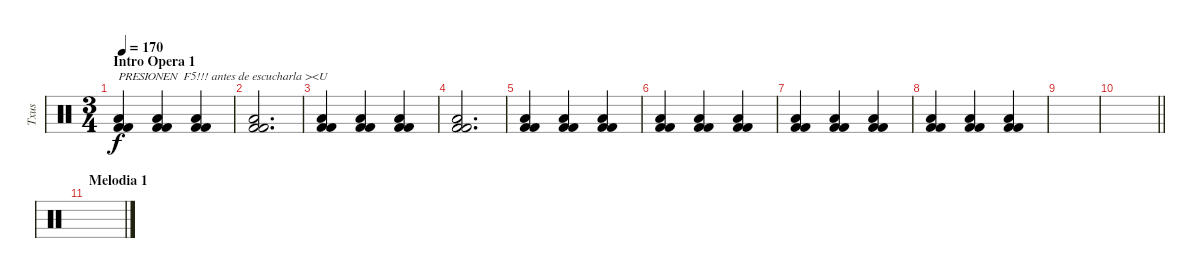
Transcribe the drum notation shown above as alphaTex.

\track ("Txus" "Txus") {instrument percussion}
\staff {score}
\articulation defaults
\ts (3 4)
\section ("" "Intro Opera 1")
\tempo 170
\clef neutral
\ks c
("Low Floor Tom (hit)" "Kick (hit) 2" "Kick (hit) 2").4{txt "PRESIONEN  F5!!! antes de escucharla ><U" dy f} ("Low Floor Tom (hit)" "Kick (hit) 2" "Kick (hit) 2").4 ("Low Floor Tom (hit)" "Kick (hit) 2" "Kick (hit) 2").4 |
("Low Floor Tom (hit)" "Kick (hit) 2" "Kick (hit) 2").2{d} |
("Low Floor Tom (hit)" "Kick (hit) 2" "Kick (hit) 2").4 ("Low Floor Tom (hit)" "Kick (hit) 2" "Kick (hit) 2").4 ("Low Floor Tom (hit)" "Kick (hit) 2" "Kick (hit) 2").4 |
("Low Floor Tom (hit)" "Kick (hit) 2" "Kick (hit) 2").2{d} |
("Low Floor Tom (hit)" "Kick (hit) 2" "Kick (hit) 2").4 ("Low Floor Tom (hit)" "Kick (hit) 2" "Kick (hit) 2").4 ("Low Floor Tom (hit)" "Kick (hit) 2" "Kick (hit) 2").4 |
("Low Floor Tom (hit)" "Kick (hit) 2" "Kick (hit) 2").4 ("Low Floor Tom (hit)" "Kick (hit) 2" "Kick (hit) 2").4 ("Low Floor Tom (hit)" "Kick (hit) 2" "Kick (hit) 2").4 |
("Low Floor Tom (hit)" "Kick (hit) 2" "Kick (hit) 2").4 ("Low Floor Tom (hit)" "Kick (hit) 2" "Kick (hit) 2").4 ("Low Floor Tom (hit)" "Kick (hit) 2" "Kick (hit) 2").4 |
("Low Floor Tom (hit)" "Kick (hit) 2" "Kick (hit) 2").4 ("Low Floor Tom (hit)" "Kick (hit) 2" "Kick (hit) 2").4 ("Low Floor Tom (hit)" "Kick (hit) 2" "Kick (hit) 2").4 |
|
\barLineRight lightlight
|
\section ("" "Melodia 1")
